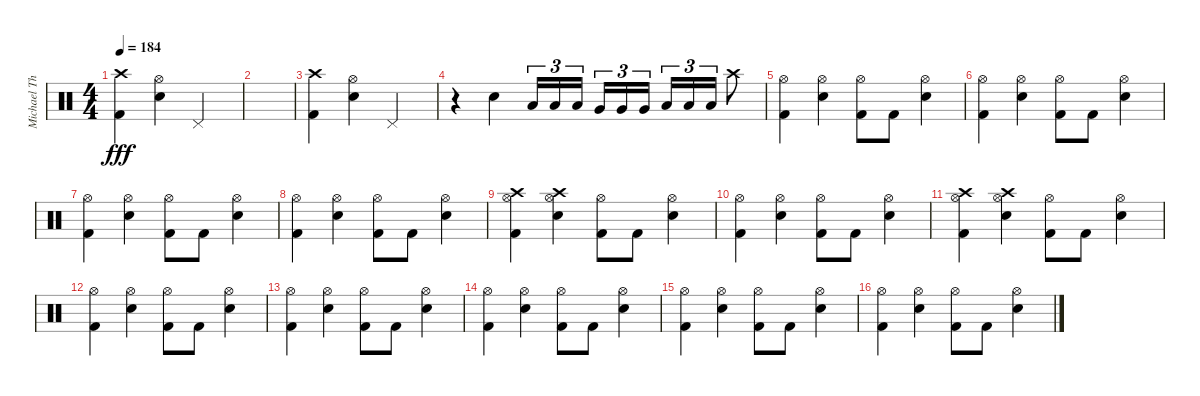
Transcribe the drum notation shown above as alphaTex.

\track ("Michael Thomas" "Michael Th") {instrument percussion}
\staff {score}
\articulation defaults
\ts (4 4)
\tempo 184
\clef neutral
\ks c
("Crash high (hit)" "Kick (hit) 2").4{dy fff} ("Hi-Hat (open)" "Snare (hit) 2").4 "Pedal Hi-Hat (hit)".2 |
|
("Crash high (hit)" "Kick (hit) 2").4 ("Hi-Hat (open)" "Snare (hit) 2").4 "Pedal Hi-Hat (hit)".2 |
r.4 "Snare (hit) 2".4 "Low Tom (hit)".16{tu (3 2)} "Low Tom (hit)".16{tu (3 2)} "Low Tom (hit)".16{tu (3 2) beam splitsecondary} "Very Low Tom (hit)".16{tu (3 2)} "Very Low Tom (hit)".16{tu (3 2)} "Very Low Tom (hit)".16{tu (3 2)} "Low Floor Tom (hit)".16{tu (3 2)} "Low Floor Tom (hit)".16{tu (3 2)} "Low Floor Tom (hit)".16{tu (3 2)} "Crash high (hit)".8 |
("Hi-Hat (open)" "Kick (hit) 2").4 ("Hi-Hat (open)" "Snare (hit) 2").4 ("Hi-Hat (open)" "Kick (hit) 2").8 "Kick (hit) 2".8 ("Hi-Hat (open)" "Snare (hit) 2").4 |
("Hi-Hat (open)" "Kick (hit) 2").4 ("Hi-Hat (open)" "Snare (hit) 2").4 ("Hi-Hat (open)" "Kick (hit) 2").8 "Kick (hit) 2".8 ("Hi-Hat (open)" "Snare (hit) 2").4 |
("Hi-Hat (open)" "Kick (hit) 2").4 ("Hi-Hat (open)" "Snare (hit) 2").4 ("Hi-Hat (open)" "Kick (hit) 2").8 "Kick (hit) 2".8 ("Hi-Hat (open)" "Snare (hit) 2").4 |
("Hi-Hat (open)" "Kick (hit) 2").4 ("Hi-Hat (open)" "Snare (hit) 2").4 ("Hi-Hat (open)" "Kick (hit) 2").8 "Kick (hit) 2".8 ("Hi-Hat (open)" "Snare (hit) 2").4 |
("Crash high (hit)" "Hi-Hat (open)" "Kick (hit) 2").4 ("Crash high (hit)" "Hi-Hat (open)" "Snare (hit) 2").4 ("Hi-Hat (open)" "Kick (hit) 2").8 "Kick (hit) 2".8 ("Hi-Hat (open)" "Snare (hit) 2").4 |
("Hi-Hat (open)" "Kick (hit) 2").4 ("Hi-Hat (open)" "Snare (hit) 2").4 ("Hi-Hat (open)" "Kick (hit) 2").8 "Kick (hit) 2".8 ("Hi-Hat (open)" "Snare (hit) 2").4 |
("Crash high (hit)" "Hi-Hat (open)" "Kick (hit) 2").4 ("Crash high (hit)" "Hi-Hat (open)" "Snare (hit) 2").4 ("Hi-Hat (open)" "Kick (hit) 2").8 "Kick (hit) 2".8 ("Hi-Hat (open)" "Snare (hit) 2").4 |
("Hi-Hat (open)" "Kick (hit) 2").4 ("Hi-Hat (open)" "Snare (hit) 2").4 ("Hi-Hat (open)" "Kick (hit) 2").8 "Kick (hit) 2".8 ("Hi-Hat (open)" "Snare (hit) 2").4 |
("Hi-Hat (open)" "Kick (hit) 2").4 ("Hi-Hat (open)" "Snare (hit) 2").4 ("Hi-Hat (open)" "Kick (hit) 2").8 "Kick (hit) 2".8 ("Hi-Hat (open)" "Snare (hit) 2").4 |
("Hi-Hat (open)" "Kick (hit) 2").4 ("Hi-Hat (open)" "Snare (hit) 2").4 ("Hi-Hat (open)" "Kick (hit) 2").8 "Kick (hit) 2".8 ("Hi-Hat (open)" "Snare (hit) 2").4 |
("Hi-Hat (open)" "Kick (hit) 2").4 ("Hi-Hat (open)" "Snare (hit) 2").4 ("Hi-Hat (open)" "Kick (hit) 2").8 "Kick (hit) 2".8 ("Hi-Hat (open)" "Snare (hit) 2").4 |
("Hi-Hat (open)" "Kick (hit) 2").4 ("Hi-Hat (open)" "Snare (hit) 2").4 ("Hi-Hat (open)" "Kick (hit) 2").8 "Kick (hit) 2".8 ("Hi-Hat (open)" "Snare (hit) 2").4
